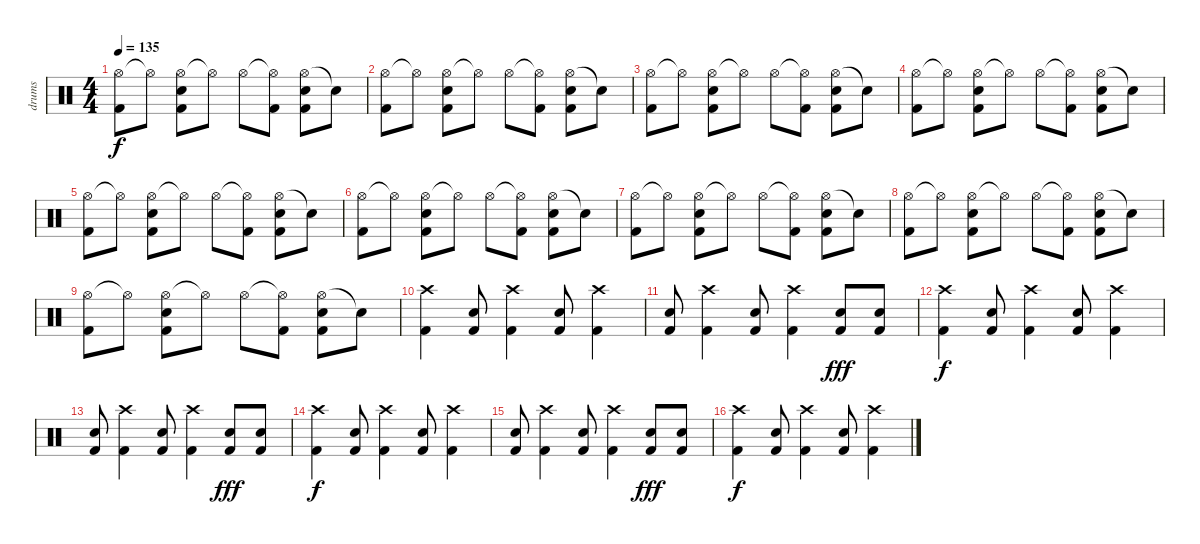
\track ("drums" "drums") {instrument percussion}
\staff {score}
\articulation defaults
\ts (4 4)
\tempo 135
\clef neutral
\ks c
("Hi-Hat (open)" "Kick (hit) 2").8{dy f} "Hi-Hat (open)"{t}.8 ("Hi-Hat (open)" "Electric Snare (hit)" "Kick (hit) 2").8 "Hi-Hat (open)"{t}.8 "Hi-Hat (open)".8 ("Hi-Hat (open)"{t} "Kick (hit) 2").8 ("Hi-Hat (open)" "Electric Snare (hit)" "Kick (hit) 2").8 "Snare (hit)"{t}.8 |
("Hi-Hat (open)" "Kick (hit) 2").8 "Hi-Hat (open)"{t}.8 ("Hi-Hat (open)" "Electric Snare (hit)" "Kick (hit) 2").8 "Hi-Hat (open)"{t}.8 "Hi-Hat (open)".8 ("Hi-Hat (open)"{t} "Kick (hit) 2").8 ("Hi-Hat (open)" "Electric Snare (hit)" "Kick (hit) 2").8 "Snare (hit)"{t}.8 |
("Hi-Hat (open)" "Kick (hit) 2").8 "Hi-Hat (open)"{t}.8 ("Hi-Hat (open)" "Electric Snare (hit)" "Kick (hit) 2").8 "Hi-Hat (open)"{t}.8 "Hi-Hat (open)".8 ("Hi-Hat (open)"{t} "Kick (hit) 2").8 ("Hi-Hat (open)" "Electric Snare (hit)" "Kick (hit) 2").8 "Snare (hit)"{t}.8 |
("Hi-Hat (open)" "Kick (hit) 2").8 "Hi-Hat (open)"{t}.8 ("Hi-Hat (open)" "Electric Snare (hit)" "Kick (hit) 2").8 "Hi-Hat (open)"{t}.8 "Hi-Hat (open)".8 ("Hi-Hat (open)"{t} "Kick (hit) 2").8 ("Hi-Hat (open)" "Electric Snare (hit)" "Kick (hit) 2").8 "Snare (hit)"{t}.8 |
("Hi-Hat (open)" "Kick (hit) 2").8 "Hi-Hat (open)"{t}.8 ("Hi-Hat (open)" "Electric Snare (hit)" "Kick (hit) 2").8 "Hi-Hat (open)"{t}.8 "Hi-Hat (open)".8 ("Hi-Hat (open)"{t} "Kick (hit) 2").8 ("Hi-Hat (open)" "Electric Snare (hit)" "Kick (hit) 2").8 "Snare (hit)"{t}.8 |
("Hi-Hat (open)" "Kick (hit) 2").8 "Hi-Hat (open)"{t}.8 ("Hi-Hat (open)" "Electric Snare (hit)" "Kick (hit) 2").8 "Hi-Hat (open)"{t}.8 "Hi-Hat (open)".8 ("Hi-Hat (open)"{t} "Kick (hit) 2").8 ("Hi-Hat (open)" "Electric Snare (hit)" "Kick (hit) 2").8 "Snare (hit)"{t}.8 |
("Hi-Hat (open)" "Kick (hit) 2").8 "Hi-Hat (open)"{t}.8 ("Hi-Hat (open)" "Electric Snare (hit)" "Kick (hit) 2").8 "Hi-Hat (open)"{t}.8 "Hi-Hat (open)".8 ("Hi-Hat (open)"{t} "Kick (hit) 2").8 ("Hi-Hat (open)" "Electric Snare (hit)" "Kick (hit) 2").8 "Snare (hit)"{t}.8 |
("Hi-Hat (open)" "Kick (hit) 2").8 "Hi-Hat (open)"{t}.8 ("Hi-Hat (open)" "Electric Snare (hit)" "Kick (hit) 2").8 "Hi-Hat (open)"{t}.8 "Hi-Hat (open)".8 ("Hi-Hat (open)"{t} "Kick (hit) 2").8 ("Hi-Hat (open)" "Electric Snare (hit)" "Kick (hit) 2").8 "Snare (hit)"{t}.8 |
("Hi-Hat (open)" "Kick (hit) 2").8 "Hi-Hat (open)"{t}.8 ("Hi-Hat (open)" "Electric Snare (hit)" "Kick (hit) 2").8 "Hi-Hat (open)"{t}.8 "Hi-Hat (open)".8 ("Hi-Hat (open)"{t} "Kick (hit) 2").8 ("Hi-Hat (open)" "Electric Snare (hit)" "Kick (hit) 2").8 "Snare (hit)"{t}.8 |
("Crash high (hit)" "Kick (hit) 2").4 ("Electric Snare (hit)" "Kick (hit) 2").8 ("Crash high (hit)" "Kick (hit) 2").4 ("Electric Snare (hit)" "Kick (hit) 2").8 ("Crash high (hit)" "Kick (hit) 2").4 |
("Electric Snare (hit)" "Kick (hit) 2").8 ("Crash high (hit)" "Kick (hit) 2").4 ("Electric Snare (hit)" "Kick (hit) 2").8 ("Crash high (hit)" "Kick (hit) 2").4 ("Electric Snare (hit)" "Kick (hit) 2").8{dy fff} ("Electric Snare (hit)" "Kick (hit) 2").8 |
("Crash high (hit)" "Kick (hit) 2").4{dy f} ("Electric Snare (hit)" "Kick (hit) 2").8 ("Crash high (hit)" "Kick (hit) 2").4 ("Electric Snare (hit)" "Kick (hit) 2").8 ("Crash high (hit)" "Kick (hit) 2").4 |
("Electric Snare (hit)" "Kick (hit) 2").8 ("Crash high (hit)" "Kick (hit) 2").4 ("Electric Snare (hit)" "Kick (hit) 2").8 ("Crash high (hit)" "Kick (hit) 2").4 ("Electric Snare (hit)" "Kick (hit) 2").8{dy fff} ("Electric Snare (hit)" "Kick (hit) 2").8 |
("Crash high (hit)" "Kick (hit) 2").4{dy f} ("Electric Snare (hit)" "Kick (hit) 2").8 ("Crash high (hit)" "Kick (hit) 2").4 ("Electric Snare (hit)" "Kick (hit) 2").8 ("Crash high (hit)" "Kick (hit) 2").4 |
("Electric Snare (hit)" "Kick (hit) 2").8 ("Crash high (hit)" "Kick (hit) 2").4 ("Electric Snare (hit)" "Kick (hit) 2").8 ("Crash high (hit)" "Kick (hit) 2").4 ("Electric Snare (hit)" "Kick (hit) 2").8{dy fff} ("Electric Snare (hit)" "Kick (hit) 2").8 |
("Crash high (hit)" "Kick (hit) 2").4{dy f} ("Electric Snare (hit)" "Kick (hit) 2").8 ("Crash high (hit)" "Kick (hit) 2").4 ("Electric Snare (hit)" "Kick (hit) 2").8 ("Crash high (hit)" "Kick (hit) 2").4
